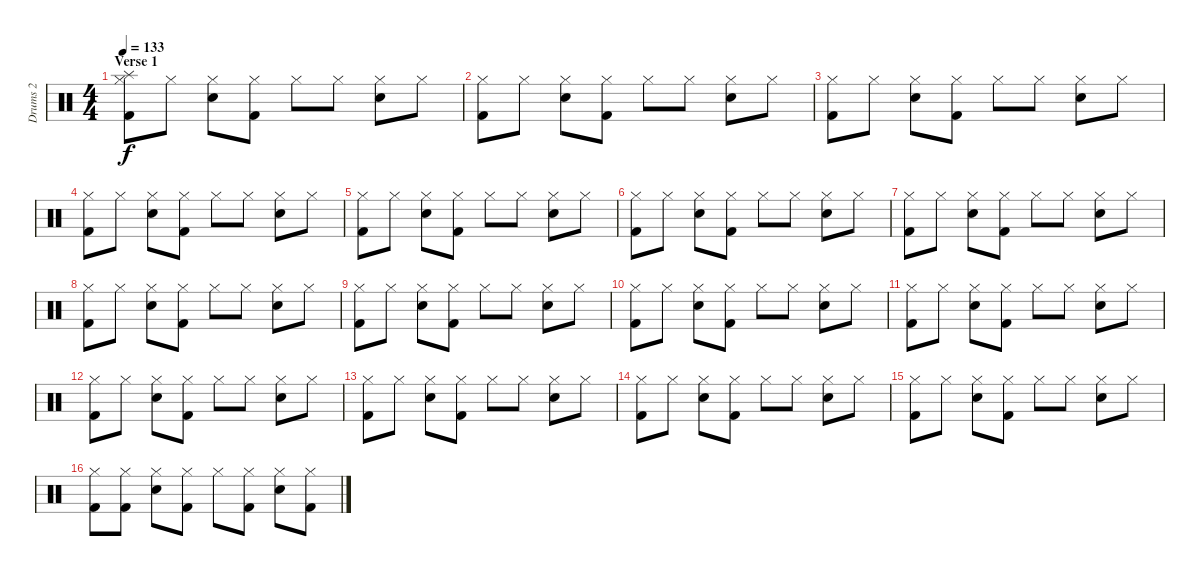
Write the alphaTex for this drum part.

\track ("Drums 2" "Drums 2") {instrument percussion}
\staff {score}
\articulation defaults
\ts (4 4)
\section ("" "Verse 1")
\tempo 133
\clef neutral
\ks c
("Splash (hit)" "Hi-Hat (closed)" "Kick (hit) 2").8{dy f} "Hi-Hat (closed)".8 ("Snare (hit) 2" "Hi-Hat (closed)").8 ("Hi-Hat (closed)" "Kick (hit) 2").8 "Hi-Hat (closed)".8 "Hi-Hat (closed)".8 ("Snare (hit) 2" "Hi-Hat (closed)").8 "Hi-Hat (closed)".8 |
("Hi-Hat (closed)" "Kick (hit) 2").8 "Hi-Hat (closed)".8 ("Snare (hit) 2" "Hi-Hat (closed)").8 ("Hi-Hat (closed)" "Kick (hit) 2").8 "Hi-Hat (closed)".8 "Hi-Hat (closed)".8 ("Snare (hit) 2" "Hi-Hat (closed)").8 "Hi-Hat (closed)".8 |
("Hi-Hat (closed)" "Kick (hit) 2").8 "Hi-Hat (closed)".8 ("Snare (hit) 2" "Hi-Hat (closed)").8 ("Hi-Hat (closed)" "Kick (hit) 2").8 "Hi-Hat (closed)".8 "Hi-Hat (closed)".8 ("Snare (hit) 2" "Hi-Hat (closed)").8 "Hi-Hat (closed)".8 |
("Hi-Hat (closed)" "Kick (hit) 2").8 "Hi-Hat (closed)".8 ("Snare (hit) 2" "Hi-Hat (closed)").8 ("Hi-Hat (closed)" "Kick (hit) 2").8 "Hi-Hat (closed)".8 "Hi-Hat (closed)".8 ("Snare (hit) 2" "Hi-Hat (closed)").8 "Hi-Hat (closed)".8 |
("Hi-Hat (closed)" "Kick (hit) 2").8 "Hi-Hat (closed)".8 ("Snare (hit) 2" "Hi-Hat (closed)").8 ("Hi-Hat (closed)" "Kick (hit) 2").8 "Hi-Hat (closed)".8 "Hi-Hat (closed)".8 ("Snare (hit) 2" "Hi-Hat (closed)").8 "Hi-Hat (closed)".8 |
("Hi-Hat (closed)" "Kick (hit) 2").8 "Hi-Hat (closed)".8 ("Snare (hit) 2" "Hi-Hat (closed)").8 ("Hi-Hat (closed)" "Kick (hit) 2").8 "Hi-Hat (closed)".8 "Hi-Hat (closed)".8 ("Snare (hit) 2" "Hi-Hat (closed)").8 "Hi-Hat (closed)".8 |
("Hi-Hat (closed)" "Kick (hit) 2").8 "Hi-Hat (closed)".8 ("Snare (hit) 2" "Hi-Hat (closed)").8 ("Hi-Hat (closed)" "Kick (hit) 2").8 "Hi-Hat (closed)".8 "Hi-Hat (closed)".8 ("Snare (hit) 2" "Hi-Hat (closed)").8 "Hi-Hat (closed)".8 |
("Hi-Hat (closed)" "Kick (hit) 2").8 "Hi-Hat (closed)".8 ("Snare (hit) 2" "Hi-Hat (closed)").8 ("Hi-Hat (closed)" "Kick (hit) 2").8 "Hi-Hat (closed)".8 "Hi-Hat (closed)".8 ("Snare (hit) 2" "Hi-Hat (closed)").8 "Hi-Hat (closed)".8 |
("Hi-Hat (closed)" "Kick (hit) 2").8 "Hi-Hat (closed)".8 ("Snare (hit) 2" "Hi-Hat (closed)").8 ("Hi-Hat (closed)" "Kick (hit) 2").8 "Hi-Hat (closed)".8 "Hi-Hat (closed)".8 ("Snare (hit) 2" "Hi-Hat (closed)").8 "Hi-Hat (closed)".8 |
("Hi-Hat (closed)" "Kick (hit) 2").8 "Hi-Hat (closed)".8 ("Snare (hit) 2" "Hi-Hat (closed)").8 ("Hi-Hat (closed)" "Kick (hit) 2").8 "Hi-Hat (closed)".8 "Hi-Hat (closed)".8 ("Snare (hit) 2" "Hi-Hat (closed)").8 "Hi-Hat (closed)".8 |
("Hi-Hat (closed)" "Kick (hit) 2").8 "Hi-Hat (closed)".8 ("Snare (hit) 2" "Hi-Hat (closed)").8 ("Hi-Hat (closed)" "Kick (hit) 2").8 "Hi-Hat (closed)".8 "Hi-Hat (closed)".8 ("Snare (hit) 2" "Hi-Hat (closed)").8 "Hi-Hat (closed)".8 |
("Hi-Hat (closed)" "Kick (hit) 2").8 "Hi-Hat (closed)".8 ("Snare (hit) 2" "Hi-Hat (closed)").8 ("Hi-Hat (closed)" "Kick (hit) 2").8 "Hi-Hat (closed)".8 "Hi-Hat (closed)".8 ("Snare (hit) 2" "Hi-Hat (closed)").8 "Hi-Hat (closed)".8 |
("Hi-Hat (closed)" "Kick (hit) 2").8 "Hi-Hat (closed)".8 ("Snare (hit) 2" "Hi-Hat (closed)").8 ("Hi-Hat (closed)" "Kick (hit) 2").8 "Hi-Hat (closed)".8 "Hi-Hat (closed)".8 ("Snare (hit) 2" "Hi-Hat (closed)").8 "Hi-Hat (closed)".8 |
("Hi-Hat (closed)" "Kick (hit) 2").8 "Hi-Hat (closed)".8 ("Snare (hit) 2" "Hi-Hat (closed)").8 ("Hi-Hat (closed)" "Kick (hit) 2").8 "Hi-Hat (closed)".8 "Hi-Hat (closed)".8 ("Snare (hit) 2" "Hi-Hat (closed)").8 "Hi-Hat (closed)".8 |
("Hi-Hat (closed)" "Kick (hit) 2").8 "Hi-Hat (closed)".8 ("Snare (hit) 2" "Hi-Hat (closed)").8 ("Hi-Hat (closed)" "Kick (hit) 2").8 "Hi-Hat (closed)".8 "Hi-Hat (closed)".8 ("Snare (hit) 2" "Hi-Hat (closed)").8 "Hi-Hat (closed)".8 |
("Hi-Hat (closed)" "Kick (hit) 2").8 ("Hi-Hat (closed)" "Kick (hit) 2").8 ("Snare (hit) 2" "Hi-Hat (closed)").8 ("Hi-Hat (closed)" "Kick (hit) 2").8 "Hi-Hat (closed)".8 ("Hi-Hat (closed)" "Kick (hit) 2").8 ("Snare (hit) 2" "Hi-Hat (closed)").8 ("Hi-Hat (closed)" "Kick (hit) 2").8
